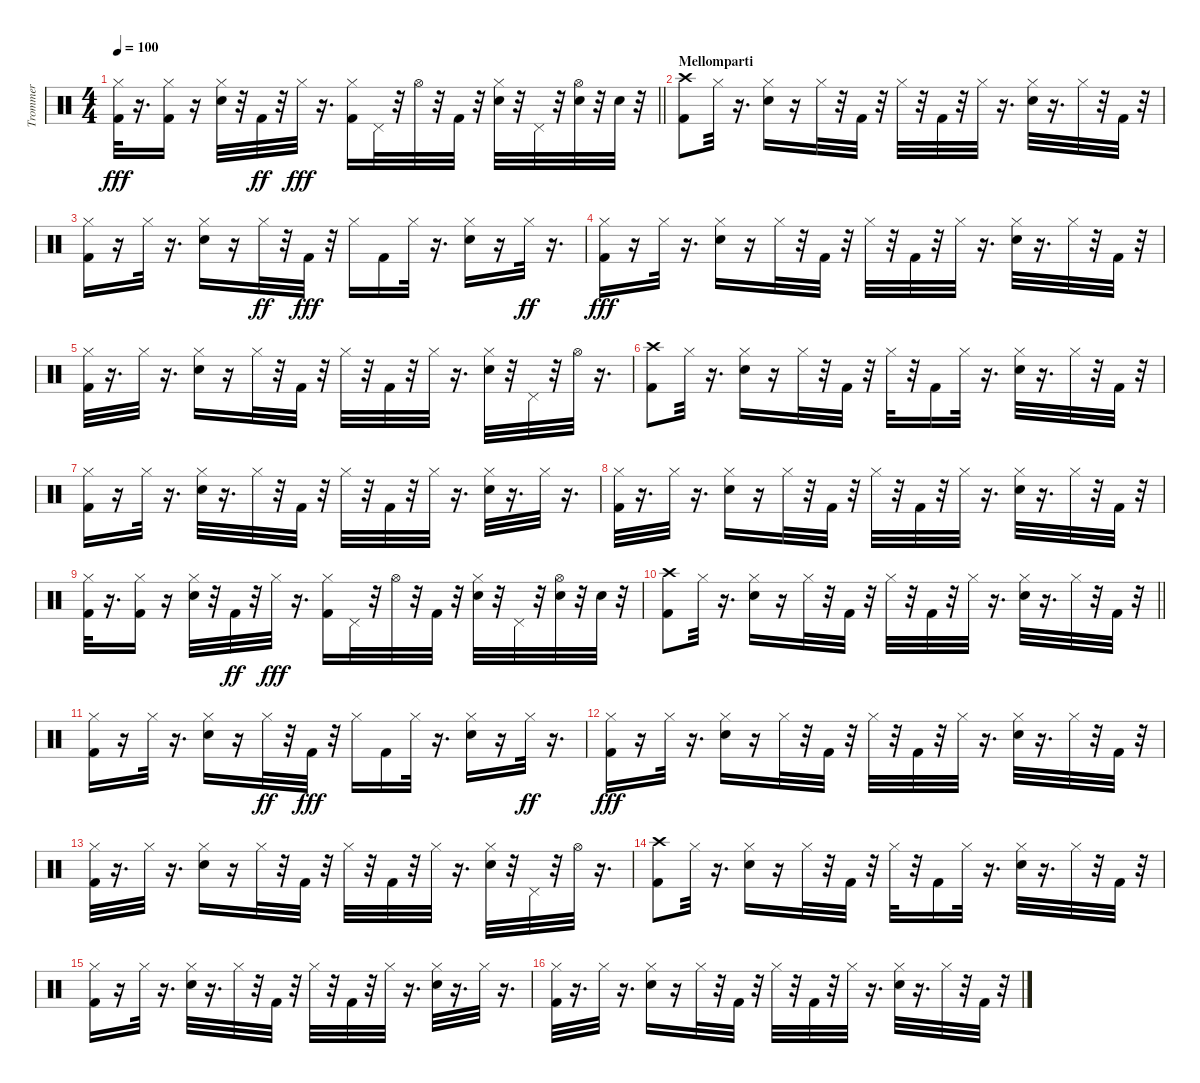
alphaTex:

\track ("Trommer" "Trommer") {instrument percussion}
\staff {score}
\articulation defaults
\ts (4 4)
\tempo 100
\clef neutral
\barLineRight lightlight
\ks c
("Kick (hit) 2" "Hi-Hat (closed)").32{dy fff} r.16{d} ("Kick (hit) 2" "Hi-Hat (closed)").16 r.16 ("Snare (hit) 2" "Hi-Hat (closed)").32 r.32 "Kick (hit) 2".32{dy ff} r.32 "Hi-Hat (closed)".32{dy fff} r.16{d} ("Kick (hit) 2" "Hi-Hat (closed)").16 "Pedal Hi-Hat (hit)".32 r.32 "Hi-Hat (open)".32 r.32 "Kick (hit) 2".32 r.32 ("Snare (hit) 2" "Hi-Hat (closed)").32 r.32 "Pedal Hi-Hat (hit)".32 r.32 ("Snare (hit) 2" "Hi-Hat (open)").32 r.32 "Snare (hit) 2".32 r.32 |
\section ("" "Mellomparti")
("Kick (hit) 2" "Crash high (hit)").8 "Hi-Hat (closed)".32 r.16{d} ("Snare (hit) 2" "Hi-Hat (closed)").16 r.16 "Hi-Hat (closed)".32 r.32 "Kick (hit) 2".32 r.32 "Hi-Hat (closed)".32 r.32 "Kick (hit) 2".32 r.32 "Hi-Hat (closed)".32 r.16{d} ("Snare (hit) 2" "Hi-Hat (closed)").32 r.16{d} "Hi-Hat (closed)".32 r.32 "Kick (hit) 2".32 r.32 |
("Kick (hit) 2" "Hi-Hat (closed)").16 r.16 "Hi-Hat (closed)".32 r.16{d} ("Snare (hit) 2" "Hi-Hat (closed)").16 r.16 "Hi-Hat (closed)".32{dy ff} r.32 "Kick (hit) 2".32{dy fff} r.32 "Hi-Hat (closed)".16 "Kick (hit) 2".16 "Hi-Hat (closed)".32 r.16{d} ("Snare (hit) 2" "Hi-Hat (closed)").16 r.16 "Hi-Hat (closed)".32{dy ff} r.16{d} |
("Kick (hit) 2" "Hi-Hat (closed)").16{dy fff} r.16 "Hi-Hat (closed)".32 r.16{d} ("Snare (hit) 2" "Hi-Hat (closed)").16 r.16 "Hi-Hat (closed)".32 r.32 "Kick (hit) 2".32 r.32 "Hi-Hat (closed)".32 r.32 "Kick (hit) 2".32 r.32 "Hi-Hat (closed)".32 r.16{d} ("Snare (hit) 2" "Hi-Hat (closed)").32 r.16{d} "Hi-Hat (closed)".32 r.32 "Kick (hit) 2".32 r.32 |
("Kick (hit) 2" "Hi-Hat (closed)").32 r.16{d} "Hi-Hat (closed)".32 r.16{d} ("Snare (hit) 2" "Hi-Hat (closed)").16 r.16 "Hi-Hat (closed)".32 r.32 "Kick (hit) 2".32 r.32 "Hi-Hat (closed)".32 r.32 "Kick (hit) 2".32 r.32 "Hi-Hat (closed)".32 r.16{d} ("Snare (hit) 2" "Hi-Hat (closed)").32 r.32 "Pedal Hi-Hat (hit)".32 r.32 "Hi-Hat (open)".32 r.16{d} |
("Kick (hit) 2" "Crash high (hit)").8 "Hi-Hat (closed)".32 r.16{d} ("Snare (hit) 2" "Hi-Hat (closed)").16 r.16 "Hi-Hat (closed)".32 r.32 "Kick (hit) 2".32 r.32 "Hi-Hat (closed)".32 r.32 "Kick (hit) 2".16 "Hi-Hat (closed)".32 r.16{d} ("Snare (hit) 2" "Hi-Hat (closed)").32 r.16{d} "Hi-Hat (closed)".32 r.32 "Kick (hit) 2".32 r.32 |
("Kick (hit) 2" "Hi-Hat (closed)").16 r.16 "Hi-Hat (closed)".32 r.16{d} ("Snare (hit) 2" "Hi-Hat (closed)").32 r.16{d} "Hi-Hat (closed)".32 r.32 "Kick (hit) 2".32 r.32 "Hi-Hat (closed)".32 r.32 "Kick (hit) 2".32 r.32 "Hi-Hat (closed)".32 r.16{d} ("Snare (hit) 2" "Hi-Hat (closed)").32 r.16{d} "Hi-Hat (closed)".32 r.16{d} |
("Kick (hit) 2" "Hi-Hat (closed)").32 r.16{d} "Hi-Hat (closed)".32 r.16{d} ("Snare (hit) 2" "Hi-Hat (closed)").16 r.16 "Hi-Hat (closed)".32 r.32 "Kick (hit) 2".32 r.32 "Hi-Hat (closed)".32 r.32 "Kick (hit) 2".32 r.32 "Hi-Hat (closed)".32 r.16{d} ("Snare (hit) 2" "Hi-Hat (closed)").32 r.16{d} "Hi-Hat (closed)".32 r.32 "Kick (hit) 2".32 r.32 |
("Kick (hit) 2" "Hi-Hat (closed)").32 r.16{d} ("Kick (hit) 2" "Hi-Hat (closed)").16 r.16 ("Snare (hit) 2" "Hi-Hat (closed)").32 r.32 "Kick (hit) 2".32{dy ff} r.32 "Hi-Hat (closed)".32{dy fff} r.16{d} ("Kick (hit) 2" "Hi-Hat (closed)").16 "Pedal Hi-Hat (hit)".32 r.32 "Hi-Hat (open)".32 r.32 "Kick (hit) 2".32 r.32 ("Snare (hit) 2" "Hi-Hat (closed)").32 r.32 "Pedal Hi-Hat (hit)".32 r.32 ("Snare (hit) 2" "Hi-Hat (open)").32 r.32 "Snare (hit) 2".32 r.32 |
\barLineRight lightlight
("Kick (hit) 2" "Crash high (hit)").8 "Hi-Hat (closed)".32 r.16{d} ("Snare (hit) 2" "Hi-Hat (closed)").16 r.16 "Hi-Hat (closed)".32 r.32 "Kick (hit) 2".32 r.32 "Hi-Hat (closed)".32 r.32 "Kick (hit) 2".32 r.32 "Hi-Hat (closed)".32 r.16{d} ("Snare (hit) 2" "Hi-Hat (closed)").32 r.16{d} "Hi-Hat (closed)".32 r.32 "Kick (hit) 2".32 r.32 |
("Kick (hit) 2" "Hi-Hat (closed)").16 r.16 "Hi-Hat (closed)".32 r.16{d} ("Snare (hit) 2" "Hi-Hat (closed)").16 r.16 "Hi-Hat (closed)".32{dy ff} r.32 "Kick (hit) 2".32{dy fff} r.32 "Hi-Hat (closed)".16 "Kick (hit) 2".16 "Hi-Hat (closed)".32 r.16{d} ("Snare (hit) 2" "Hi-Hat (closed)").16 r.16 "Hi-Hat (closed)".32{dy ff} r.16{d} |
("Kick (hit) 2" "Hi-Hat (closed)").16{dy fff} r.16 "Hi-Hat (closed)".32 r.16{d} ("Snare (hit) 2" "Hi-Hat (closed)").16 r.16 "Hi-Hat (closed)".32 r.32 "Kick (hit) 2".32 r.32 "Hi-Hat (closed)".32 r.32 "Kick (hit) 2".32 r.32 "Hi-Hat (closed)".32 r.16{d} ("Snare (hit) 2" "Hi-Hat (closed)").32 r.16{d} "Hi-Hat (closed)".32 r.32 "Kick (hit) 2".32 r.32 |
("Kick (hit) 2" "Hi-Hat (closed)").32 r.16{d} "Hi-Hat (closed)".32 r.16{d} ("Snare (hit) 2" "Hi-Hat (closed)").16 r.16 "Hi-Hat (closed)".32 r.32 "Kick (hit) 2".32 r.32 "Hi-Hat (closed)".32 r.32 "Kick (hit) 2".32 r.32 "Hi-Hat (closed)".32 r.16{d} ("Snare (hit) 2" "Hi-Hat (closed)").32 r.32 "Pedal Hi-Hat (hit)".32 r.32 "Hi-Hat (open)".32 r.16{d} |
("Kick (hit) 2" "Crash high (hit)").8 "Hi-Hat (closed)".32 r.16{d} ("Snare (hit) 2" "Hi-Hat (closed)").16 r.16 "Hi-Hat (closed)".32 r.32 "Kick (hit) 2".32 r.32 "Hi-Hat (closed)".32 r.32 "Kick (hit) 2".16 "Hi-Hat (closed)".32 r.16{d} ("Snare (hit) 2" "Hi-Hat (closed)").32 r.16{d} "Hi-Hat (closed)".32 r.32 "Kick (hit) 2".32 r.32 |
("Kick (hit) 2" "Hi-Hat (closed)").16 r.16 "Hi-Hat (closed)".32 r.16{d} ("Snare (hit) 2" "Hi-Hat (closed)").32 r.16{d} "Hi-Hat (closed)".32 r.32 "Kick (hit) 2".32 r.32 "Hi-Hat (closed)".32 r.32 "Kick (hit) 2".32 r.32 "Hi-Hat (closed)".32 r.16{d} ("Snare (hit) 2" "Hi-Hat (closed)").32 r.16{d} "Hi-Hat (closed)".32 r.16{d} |
("Kick (hit) 2" "Hi-Hat (closed)").32 r.16{d} "Hi-Hat (closed)".32 r.16{d} ("Snare (hit) 2" "Hi-Hat (closed)").16 r.16 "Hi-Hat (closed)".32 r.32 "Kick (hit) 2".32 r.32 "Hi-Hat (closed)".32 r.32 "Kick (hit) 2".32 r.32 "Hi-Hat (closed)".32 r.16{d} ("Snare (hit) 2" "Hi-Hat (closed)").32 r.16{d} "Hi-Hat (closed)".32 r.32 "Kick (hit) 2".32 r.32
